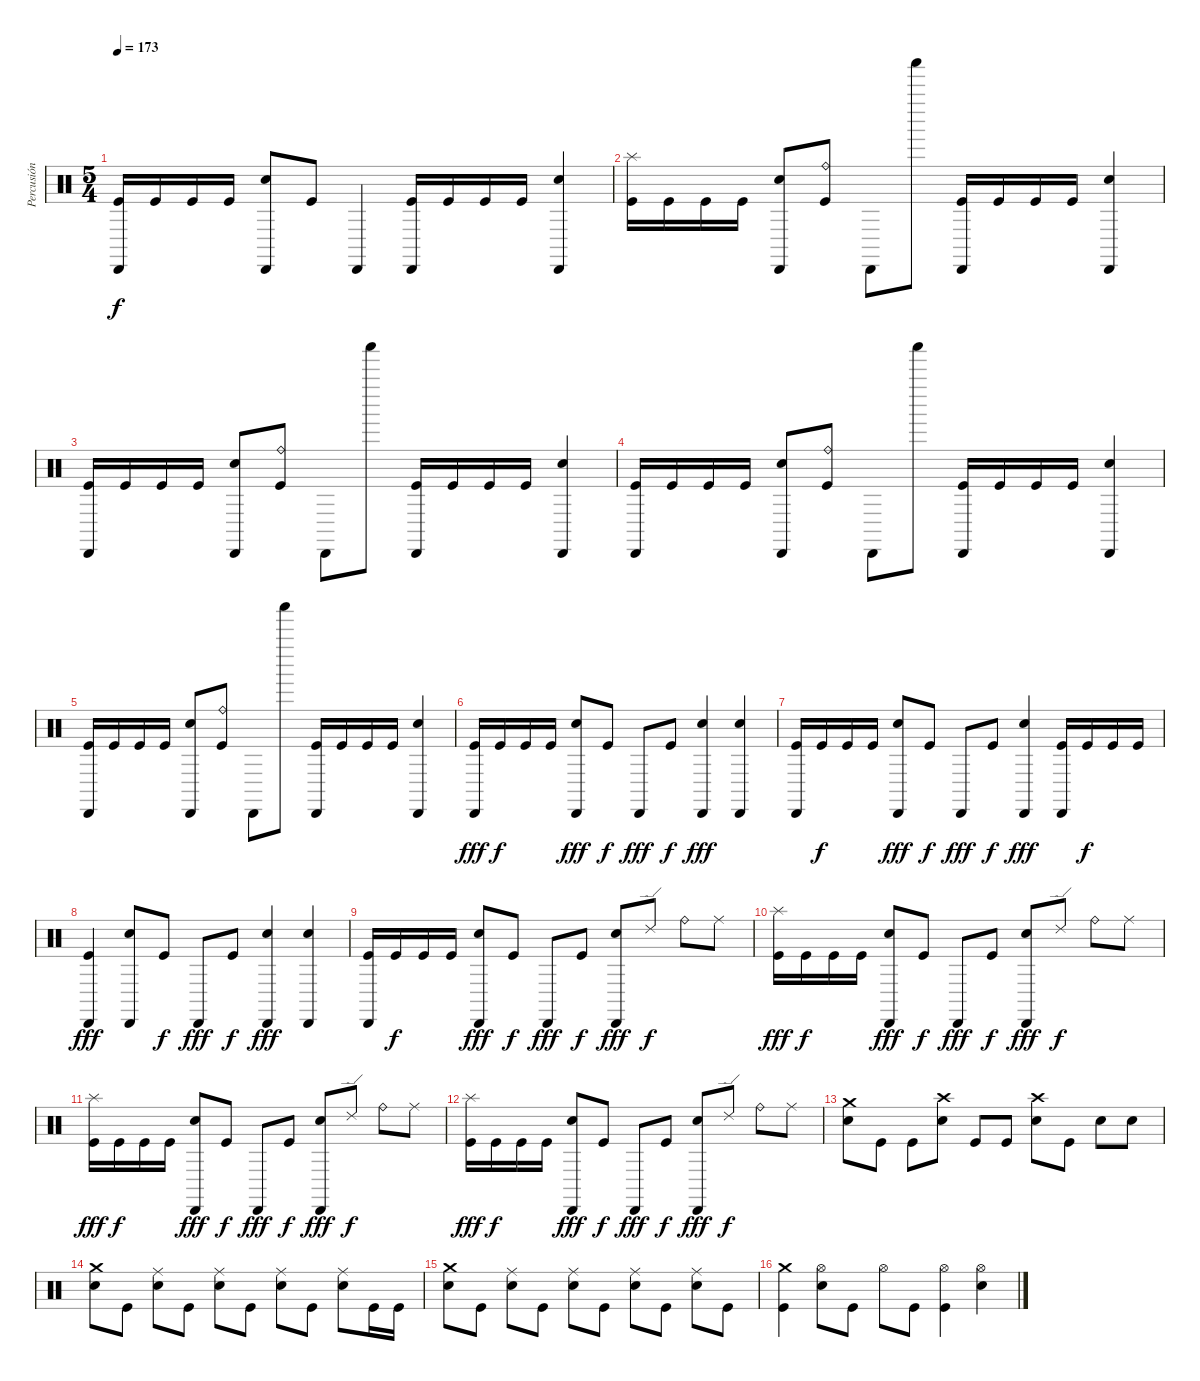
\track ("Percusión" "Percusión") {instrument percussion}
\staff {score}
\articulation defaults
\ts (5 4)
\tempo 173
\clef neutral
\ks c
("Cabasa (hit)" "Kick (hit)").16{dy f} "Kick (hit)".16 "Kick (hit)".16 "Kick (hit)".16 ("Cabasa (hit)" "Electric Snare (hit)").8 "Kick (hit)".8 "Cabasa (hit)".4 ("Cabasa (hit)" "Kick (hit)").16 "Kick (hit)".16 "Kick (hit)".16 "Kick (hit)".16 ("Cabasa (hit)" "Electric Snare (hit)").4 |
("Splash (hit)" "Kick (hit)").16 "Kick (hit)".16 "Kick (hit)".16 "Kick (hit)".16 ("Cabasa (hit)" "Electric Snare (hit)").8 ("Ride (bell)" "Kick (hit)").8 "Cabasa (hit)".8 "Shaker (hit)".8 ("Cabasa (hit)" "Kick (hit)").16 "Kick (hit)".16 "Kick (hit)".16 "Kick (hit)".16 ("Cabasa (hit)" "Electric Snare (hit)").4 |
("Cabasa (hit)" "Kick (hit)").16 "Kick (hit)".16 "Kick (hit)".16 "Kick (hit)".16 ("Cabasa (hit)" "Electric Snare (hit)").8 ("Ride (bell)" "Kick (hit)").8 "Cabasa (hit)".8 "Shaker (hit)".8 ("Cabasa (hit)" "Kick (hit)").16 "Kick (hit)".16 "Kick (hit)".16 "Kick (hit)".16 ("Cabasa (hit)" "Electric Snare (hit)").4 |
("Cabasa (hit)" "Kick (hit)").16 "Kick (hit)".16 "Kick (hit)".16 "Kick (hit)".16 ("Cabasa (hit)" "Electric Snare (hit)").8 ("Ride (bell)" "Kick (hit)").8 "Cabasa (hit)".8 "Shaker (hit)".8 ("Cabasa (hit)" "Kick (hit)").16 "Kick (hit)".16 "Kick (hit)".16 "Kick (hit)".16 ("Cabasa (hit)" "Electric Snare (hit)").4 |
("Cabasa (hit)" "Kick (hit)").16 "Kick (hit)".16 "Kick (hit)".16 "Kick (hit)".16 ("Cabasa (hit)" "Electric Snare (hit)").8 ("Ride (bell)" "Kick (hit)").8 "Cabasa (hit)".8 "Shaker (hit)".8 ("Cabasa (hit)" "Kick (hit)").16 "Kick (hit)".16 "Kick (hit)".16 "Kick (hit)".16 ("Cabasa (hit)" "Electric Snare (hit)").4 |
("Cabasa (hit)" "Kick (hit)").16{dy fff} "Kick (hit)".16{dy f} "Kick (hit)".16 "Kick (hit)".16 ("Cabasa (hit)" "Electric Snare (hit)").8{dy fff} "Kick (hit)".8{dy f} "Cabasa (hit)".8{dy fff} "Kick (hit)".8{dy f} ("Cabasa (hit)" "Electric Snare (hit)").4{dy fff} ("Cabasa (hit)" "Electric Snare (hit)").4 |
("Cabasa (hit)" "Kick (hit)").16 "Kick (hit)".16{dy f} "Kick (hit)".16 "Kick (hit)".16 ("Cabasa (hit)" "Electric Snare (hit)").8{dy fff} "Kick (hit)".8{dy f} "Cabasa (hit)".8{dy fff} "Kick (hit)".8{dy f} ("Cabasa (hit)" "Electric Snare (hit)").4{dy fff} ("Cabasa (hit)" "Kick (hit)").16 "Kick (hit)".16{dy f} "Kick (hit)".16 "Kick (hit)".16 |
("Cabasa (hit)" "Kick (hit)").4{dy fff} ("Cabasa (hit)" "Electric Snare (hit)").8 "Kick (hit)".8{dy f} "Cabasa (hit)".8{dy fff} "Kick (hit)".8{dy f} ("Cabasa (hit)" "Electric Snare (hit)").4{dy fff} ("Cabasa (hit)" "Electric Snare (hit)").4 |
("Cabasa (hit)" "Kick (hit)").16 "Kick (hit)".16{dy f} "Kick (hit)".16 "Kick (hit)".16 ("Cabasa (hit)" "Electric Snare (hit)").8{dy fff} "Kick (hit)".8{dy f} "Cabasa (hit)".8{dy fff} "Kick (hit)".8{dy f} ("Cabasa (hit)" "Electric Snare (hit)").8{dy fff} "Ride (edge) 2".8{dy f} "Ride (bell)".8 "Ride (middle)".8 |
("Splash (hit)" "Kick (hit)").16{dy fff} "Kick (hit)".16{dy f} "Kick (hit)".16 "Kick (hit)".16 ("Cabasa (hit)" "Electric Snare (hit)").8{dy fff} "Kick (hit)".8{dy f} "Cabasa (hit)".8{dy fff} "Kick (hit)".8{dy f} ("Cabasa (hit)" "Electric Snare (hit)").8{dy fff} "Ride (edge) 2".8{dy f} "Ride (bell)".8 "Ride (middle)".8 |
("Splash (hit)" "Kick (hit)").16{dy fff} "Kick (hit)".16{dy f} "Kick (hit)".16 "Kick (hit)".16 ("Cabasa (hit)" "Electric Snare (hit)").8{dy fff} "Kick (hit)".8{dy f} "Cabasa (hit)".8{dy fff} "Kick (hit)".8{dy f} ("Cabasa (hit)" "Electric Snare (hit)").8{dy fff} "Ride (edge) 2".8{dy f} "Ride (bell)".8 "Ride (middle)".8 |
("Splash (hit)" "Kick (hit)").16{dy fff} "Kick (hit)".16{dy f} "Kick (hit)".16 "Kick (hit)".16 ("Cabasa (hit)" "Electric Snare (hit)").8{dy fff} "Kick (hit)".8{dy f} "Cabasa (hit)".8{dy fff} "Kick (hit)".8{dy f} ("Cabasa (hit)" "Electric Snare (hit)").8{dy fff} "Ride (edge) 2".8{dy f} "Ride (bell)".8 "Ride (middle)".8 |
("Crash medium (hit)" "Electric Snare (hit)").8 "Kick (hit)".8 "Kick (hit)".8 ("Crash high (hit)" "Electric Snare (hit)").8 "Kick (hit)".8 "Kick (hit)".8 ("Crash high (hit)" "Electric Snare (hit)").8 "Kick (hit)".8 "Electric Snare (hit)".8 "Electric Snare (hit)".8 |
("Crash medium (hit)" "Electric Snare (hit)").8 "Kick (hit)".8 ("Ride (middle)" "Electric Snare (hit)").8 "Kick (hit)".8 ("Ride (middle)" "Electric Snare (hit)").8 "Kick (hit)".8 ("Ride (middle)" "Electric Snare (hit)").8 "Kick (hit)".8 ("Ride (middle)" "Electric Snare (hit)").8 "Kick (hit)".16 "Kick (hit)".16 |
("Crash medium (hit)" "Electric Snare (hit)").8 "Kick (hit)".8 ("Ride (middle)" "Electric Snare (hit)").8 "Kick (hit)".8 ("Ride (middle)" "Electric Snare (hit)").8 "Kick (hit)".8 ("Ride (middle)" "Electric Snare (hit)").8 "Kick (hit)".8 ("Ride (middle)" "Electric Snare (hit)").8 "Kick (hit)".8 |
("Crash medium (hit)" "Kick (hit)").4 ("Hi-Hat (open)" "Electric Snare (hit)").8 "Kick (hit)".8 "Hi-Hat (open)".8 "Kick (hit)".8 ("Hi-Hat (open)" "Kick (hit)").4 ("Hi-Hat (open)" "Electric Snare (hit)").4
